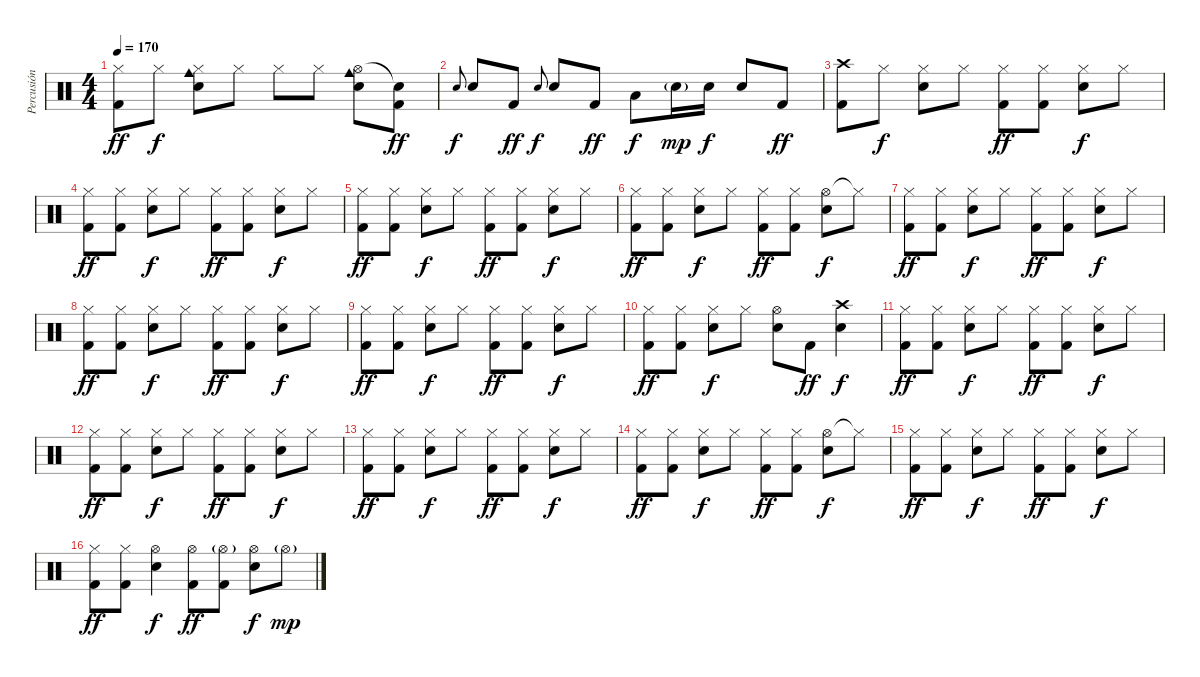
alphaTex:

\track ("Percusión" "Percusión") {instrument percussion}
\staff {score}
\articulation defaults
\ts (4 4)
\tempo 170
\clef neutral
\ks c
("Hi-Hat (closed)" "Kick (hit) 2").8{dy ff} "Hi-Hat (closed)".8{dy f} ("Hi-Hat (closed)" "Cowbell medium (hit)" "Snare (hit) 2").8 "Hi-Hat (closed)".8 "Hi-Hat (closed)".8 "Hi-Hat (closed)".8 ("Hi-Hat (open)" "Cowbell medium (hit)" "Snare (hit) 2").8 ("Snare (hit)"{t} "Kick (hit) 2").8{dy ff} |
"Snare (hit) 2".8{gr onbeat dy f} "Snare (hit) 2".8 "Kick (hit) 2".8{dy ff} "Snare (hit) 2".8{gr onbeat dy f} "Snare (hit) 2".8 "Kick (hit) 2".8{dy ff} "Low Tom (hit)".8{dy f} "Snare (hit) 2"{g}.16{dy mp} "Snare (hit) 2".16{dy f} "Snare (hit) 2".8 "Kick (hit) 2".8{dy ff} |
("Crash high (hit)" "Kick (hit) 2").8 "Hi-Hat (closed)".8{dy f} ("Hi-Hat (closed)" "Snare (hit) 2").8 "Hi-Hat (closed)".8 ("Hi-Hat (closed)" "Kick (hit) 2").8{dy ff} ("Hi-Hat (closed)" "Kick (hit) 2").8 ("Hi-Hat (closed)" "Snare (hit) 2").8{dy f} "Hi-Hat (closed)".8 |
("Hi-Hat (closed)" "Kick (hit) 2").8{dy ff} ("Hi-Hat (closed)" "Kick (hit) 2").8 ("Hi-Hat (closed)" "Snare (hit) 2").8{dy f} "Hi-Hat (closed)".8 ("Hi-Hat (closed)" "Kick (hit) 2").8{dy ff} ("Hi-Hat (closed)" "Kick (hit) 2").8 ("Hi-Hat (closed)" "Snare (hit) 2").8{dy f} "Hi-Hat (closed)".8 |
("Hi-Hat (closed)" "Kick (hit) 2").8{dy ff} ("Hi-Hat (closed)" "Kick (hit) 2").8 ("Hi-Hat (closed)" "Snare (hit) 2").8{dy f} "Hi-Hat (closed)".8 ("Hi-Hat (closed)" "Kick (hit) 2").8{dy ff} ("Hi-Hat (closed)" "Kick (hit) 2").8 ("Hi-Hat (closed)" "Snare (hit) 2").8{dy f} "Hi-Hat (closed)".8 |
("Hi-Hat (closed)" "Kick (hit) 2").8{dy ff} ("Hi-Hat (closed)" "Kick (hit) 2").8 ("Hi-Hat (closed)" "Snare (hit) 2").8{dy f} "Hi-Hat (closed)".8 ("Hi-Hat (closed)" "Kick (hit) 2").8{dy ff} ("Hi-Hat (closed)" "Kick (hit) 2").8 ("Hi-Hat (open)" "Snare (hit) 2").8{dy f} "Hi-Hat (closed)"{t}.8 |
("Hi-Hat (closed)" "Kick (hit) 2").8{dy ff} ("Hi-Hat (closed)" "Kick (hit) 2").8 ("Hi-Hat (closed)" "Snare (hit) 2").8{dy f} "Hi-Hat (closed)".8 ("Hi-Hat (closed)" "Kick (hit) 2").8{dy ff} ("Hi-Hat (closed)" "Kick (hit) 2").8 ("Hi-Hat (closed)" "Snare (hit) 2").8{dy f} "Hi-Hat (closed)".8 |
("Hi-Hat (closed)" "Kick (hit) 2").8{dy ff} ("Hi-Hat (closed)" "Kick (hit) 2").8 ("Hi-Hat (closed)" "Snare (hit) 2").8{dy f} "Hi-Hat (closed)".8 ("Hi-Hat (closed)" "Kick (hit) 2").8{dy ff} ("Hi-Hat (closed)" "Kick (hit) 2").8 ("Hi-Hat (closed)" "Snare (hit) 2").8{dy f} "Hi-Hat (closed)".8 |
("Hi-Hat (closed)" "Kick (hit) 2").8{dy ff} ("Hi-Hat (closed)" "Kick (hit) 2").8 ("Hi-Hat (closed)" "Snare (hit) 2").8{dy f} "Hi-Hat (closed)".8 ("Hi-Hat (closed)" "Kick (hit) 2").8{dy ff} ("Hi-Hat (closed)" "Kick (hit) 2").8 ("Hi-Hat (closed)" "Snare (hit) 2").8{dy f} "Hi-Hat (closed)".8 |
("Hi-Hat (closed)" "Kick (hit) 2").8{dy ff} ("Hi-Hat (closed)" "Kick (hit) 2").8 ("Hi-Hat (closed)" "Snare (hit) 2").8{dy f} "Hi-Hat (closed)".8 ("Hi-Hat (open)" "Snare (hit) 2").8 "Kick (hit) 2".8{dy ff} ("Crash high (hit)" "Snare (hit) 2").4{dy f} |
("Hi-Hat (closed)" "Kick (hit) 2").8{dy ff} ("Hi-Hat (closed)" "Kick (hit) 2").8 ("Hi-Hat (closed)" "Snare (hit) 2").8{dy f} "Hi-Hat (closed)".8 ("Hi-Hat (closed)" "Kick (hit) 2").8{dy ff} ("Hi-Hat (closed)" "Kick (hit) 2").8 ("Hi-Hat (closed)" "Snare (hit) 2").8{dy f} "Hi-Hat (closed)".8 |
("Hi-Hat (closed)" "Kick (hit) 2").8{dy ff} ("Hi-Hat (closed)" "Kick (hit) 2").8 ("Hi-Hat (closed)" "Snare (hit) 2").8{dy f} "Hi-Hat (closed)".8 ("Hi-Hat (closed)" "Kick (hit) 2").8{dy ff} ("Hi-Hat (closed)" "Kick (hit) 2").8 ("Hi-Hat (closed)" "Snare (hit) 2").8{dy f} "Hi-Hat (closed)".8 |
("Hi-Hat (closed)" "Kick (hit) 2").8{dy ff} ("Hi-Hat (closed)" "Kick (hit) 2").8 ("Hi-Hat (closed)" "Snare (hit) 2").8{dy f} "Hi-Hat (closed)".8 ("Hi-Hat (closed)" "Kick (hit) 2").8{dy ff} ("Hi-Hat (closed)" "Kick (hit) 2").8 ("Hi-Hat (closed)" "Snare (hit) 2").8{dy f} "Hi-Hat (closed)".8 |
("Hi-Hat (closed)" "Kick (hit) 2").8{dy ff} ("Hi-Hat (closed)" "Kick (hit) 2").8 ("Hi-Hat (closed)" "Snare (hit) 2").8{dy f} "Hi-Hat (closed)".8 ("Hi-Hat (closed)" "Kick (hit) 2").8{dy ff} ("Hi-Hat (closed)" "Kick (hit) 2").8 ("Hi-Hat (open)" "Snare (hit) 2").8{dy f} "Hi-Hat (closed)"{t}.8 |
("Hi-Hat (closed)" "Kick (hit) 2").8{dy ff} ("Hi-Hat (closed)" "Kick (hit) 2").8 ("Hi-Hat (closed)" "Snare (hit) 2").8{dy f} "Hi-Hat (closed)".8 ("Hi-Hat (closed)" "Kick (hit) 2").8{dy ff} ("Hi-Hat (closed)" "Kick (hit) 2").8 ("Hi-Hat (closed)" "Snare (hit) 2").8{dy f} "Hi-Hat (closed)".8 |
("Hi-Hat (closed)" "Kick (hit) 2").8{dy ff} ("Hi-Hat (closed)" "Kick (hit) 2").8 ("Hi-Hat (open)" "Snare (hit) 2").4{dy f} ("Hi-Hat (open)" "Kick (hit) 2").8{dy ff} ("Hi-Hat (open)"{g} "Kick (hit) 2").8 ("Hi-Hat (open)" "Snare (hit) 2").8{dy f} "Hi-Hat (open)"{g}.8{dy mp}
